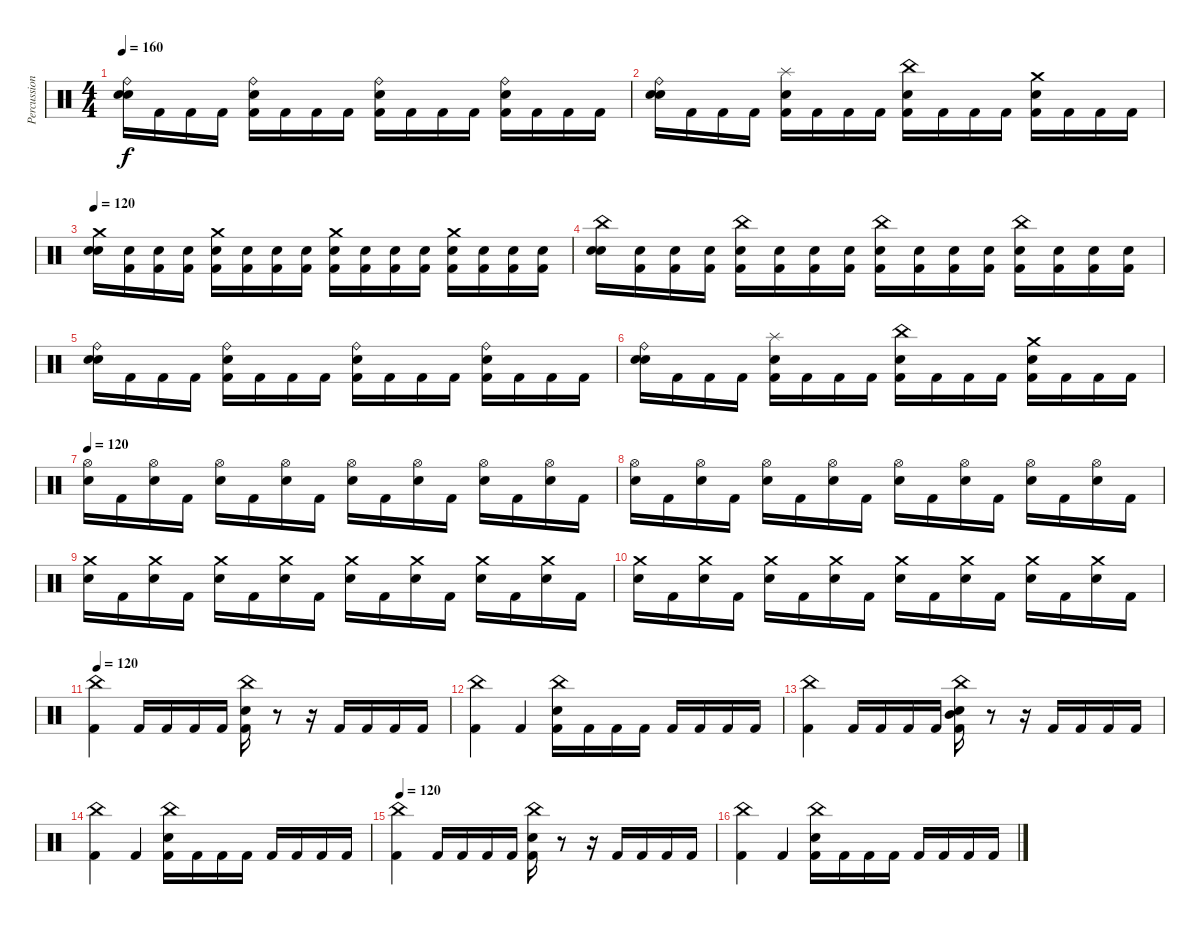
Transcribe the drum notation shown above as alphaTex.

\track ("Percussion" "Percussion") {instrument percussion}
\staff {score}
\articulation defaults
\ts (4 4)
\tempo 160
\clef neutral
\ks c
("Ride (bell)" "Snare (hit) 2" "Snare (hit) 2").16{dy f} "Kick (hit) 2".16 "Kick (hit) 2".16 "Kick (hit) 2".16 ("Ride (bell)" "Snare (hit) 2" "Kick (hit) 2").16 "Kick (hit) 2".16 "Kick (hit) 2".16 "Kick (hit) 2".16 ("Ride (bell)" "Snare (hit) 2" "Kick (hit) 2").16 "Kick (hit) 2".16 "Kick (hit) 2".16 "Kick (hit) 2".16 ("Ride (bell)" "Snare (hit) 2" "Kick (hit) 2").16 "Kick (hit) 2".16 "Kick (hit) 2".16 "Kick (hit) 2".16 |
("Ride (bell)" "Snare (hit) 2" "Snare (hit) 2").16 "Kick (hit) 2".16 "Kick (hit) 2".16 "Kick (hit) 2".16 ("Splash (hit)" "Snare (hit) 2" "Kick (hit) 2").16 "Kick (hit) 2".16 "Kick (hit) 2".16 "Kick (hit) 2".16 ("China (hit)" "Snare (hit) 2" "Kick (hit) 2").16 "Kick (hit) 2".16 "Kick (hit) 2".16 "Kick (hit) 2".16 ("Crash medium (hit)" "Snare (hit) 2" "Kick (hit) 2").16 "Kick (hit) 2".16 "Kick (hit) 2".16 "Kick (hit) 2".16 |
\tempo 90
\tempo 120
("Crash medium (hit)" "Snare (hit) 2" "Snare (hit) 2").16 ("Snare (hit) 2" "Kick (hit) 2").16 ("Snare (hit) 2" "Kick (hit) 2").16 ("Snare (hit) 2" "Kick (hit) 2").16 ("Crash medium (hit)" "Snare (hit) 2" "Kick (hit) 2").16 ("Snare (hit) 2" "Kick (hit) 2").16 ("Snare (hit) 2" "Kick (hit) 2").16 ("Snare (hit) 2" "Kick (hit) 2").16 ("Crash medium (hit)" "Snare (hit) 2" "Kick (hit) 2").16 ("Snare (hit) 2" "Kick (hit) 2").16 ("Snare (hit) 2" "Kick (hit) 2").16 ("Snare (hit) 2" "Kick (hit) 2").16 ("Crash medium (hit)" "Snare (hit) 2" "Kick (hit) 2").16 ("Snare (hit) 2" "Kick (hit) 2").16 ("Snare (hit) 2" "Kick (hit) 2").16 ("Snare (hit) 2" "Kick (hit) 2").16 |
("China (hit)" "Snare (hit) 2" "Snare (hit) 2").16 ("Snare (hit) 2" "Kick (hit) 2").16 ("Snare (hit) 2" "Kick (hit) 2").16 ("Snare (hit) 2" "Kick (hit) 2").16 ("China (hit)" "Snare (hit) 2" "Kick (hit) 2").16 ("Snare (hit) 2" "Kick (hit) 2").16 ("Snare (hit) 2" "Kick (hit) 2").16 ("Snare (hit) 2" "Kick (hit) 2").16 ("China (hit)" "Snare (hit) 2" "Kick (hit) 2").16 ("Snare (hit) 2" "Kick (hit) 2").16 ("Snare (hit) 2" "Kick (hit) 2").16 ("Snare (hit) 2" "Kick (hit) 2").16 ("China (hit)" "Snare (hit) 2" "Kick (hit) 2").16 ("Snare (hit) 2" "Kick (hit) 2").16 ("Snare (hit) 2" "Kick (hit) 2").16 ("Snare (hit) 2" "Kick (hit) 2").16 |
("Ride (bell)" "Snare (hit) 2" "Snare (hit) 2").16 "Kick (hit) 2".16 "Kick (hit) 2".16 "Kick (hit) 2".16 ("Ride (bell)" "Snare (hit) 2" "Kick (hit) 2").16 "Kick (hit) 2".16 "Kick (hit) 2".16 "Kick (hit) 2".16 ("Ride (bell)" "Snare (hit) 2" "Kick (hit) 2").16 "Kick (hit) 2".16 "Kick (hit) 2".16 "Kick (hit) 2".16 ("Ride (bell)" "Snare (hit) 2" "Kick (hit) 2").16 "Kick (hit) 2".16 "Kick (hit) 2".16 "Kick (hit) 2".16 |
("Ride (bell)" "Snare (hit) 2" "Snare (hit) 2").16 "Kick (hit) 2".16 "Kick (hit) 2".16 "Kick (hit) 2".16 ("Splash (hit)" "Snare (hit) 2" "Kick (hit) 2").16 "Kick (hit) 2".16 "Kick (hit) 2".16 "Kick (hit) 2".16 ("China (hit)" "Snare (hit) 2" "Kick (hit) 2").16 "Kick (hit) 2".16 "Kick (hit) 2".16 "Kick (hit) 2".16 ("Crash medium (hit)" "Snare (hit) 2" "Kick (hit) 2").16 "Kick (hit) 2".16 "Kick (hit) 2".16 "Kick (hit) 2".16 |
\tempo 90
\tempo 120
("Hi-Hat (open)" "Snare (hit) 2").16 "Kick (hit) 2".16 ("Hi-Hat (open)" "Snare (hit) 2").16 "Kick (hit) 2".16 ("Hi-Hat (open)" "Snare (hit) 2").16 "Kick (hit) 2".16 ("Hi-Hat (open)" "Snare (hit) 2").16 "Kick (hit) 2".16 ("Hi-Hat (open)" "Snare (hit) 2").16 "Kick (hit) 2".16 ("Hi-Hat (open)" "Snare (hit) 2").16 "Kick (hit) 2".16 ("Hi-Hat (open)" "Snare (hit) 2").16 "Kick (hit) 2".16 ("Hi-Hat (open)" "Snare (hit) 2").16 "Kick (hit) 2".16 |
("Hi-Hat (open)" "Snare (hit) 2").16 "Kick (hit) 2".16 ("Hi-Hat (open)" "Snare (hit) 2").16 "Kick (hit) 2".16 ("Hi-Hat (open)" "Snare (hit) 2").16 "Kick (hit) 2".16 ("Hi-Hat (open)" "Snare (hit) 2").16 "Kick (hit) 2".16 ("Hi-Hat (open)" "Snare (hit) 2").16 "Kick (hit) 2".16 ("Hi-Hat (open)" "Snare (hit) 2").16 "Kick (hit) 2".16 ("Hi-Hat (open)" "Snare (hit) 2").16 "Kick (hit) 2".16 ("Hi-Hat (open)" "Snare (hit) 2").16 "Kick (hit) 2".16 |
("Crash medium (hit)" "Snare (hit) 2").16 "Kick (hit) 2".16 ("Crash medium (hit)" "Snare (hit) 2").16 "Kick (hit) 2".16 ("Crash medium (hit)" "Snare (hit) 2").16 "Kick (hit) 2".16 ("Crash medium (hit)" "Snare (hit) 2").16 "Kick (hit) 2".16 ("Crash medium (hit)" "Snare (hit) 2").16 "Kick (hit) 2".16 ("Crash medium (hit)" "Snare (hit) 2").16 "Kick (hit) 2".16 ("Crash medium (hit)" "Snare (hit) 2").16 "Kick (hit) 2".16 ("Crash medium (hit)" "Snare (hit) 2").16 "Kick (hit) 2".16 |
("Crash medium (hit)" "Snare (hit) 2").16 "Kick (hit) 2".16 ("Crash medium (hit)" "Snare (hit) 2").16 "Kick (hit) 2".16 ("Crash medium (hit)" "Snare (hit) 2").16 "Kick (hit) 2".16 ("Crash medium (hit)" "Snare (hit) 2").16 "Kick (hit) 2".16 ("Crash medium (hit)" "Snare (hit) 2").16 "Kick (hit) 2".16 ("Crash medium (hit)" "Snare (hit) 2").16 "Kick (hit) 2".16 ("Crash medium (hit)" "Snare (hit) 2").16 "Kick (hit) 2".16 ("Crash medium (hit)" "Snare (hit) 2").16 "Kick (hit) 2".16 |
\tempo 120
("China (hit)" "Kick (hit) 2").4 "Kick (hit) 2".16 "Kick (hit) 2".16 "Kick (hit) 2".16 "Kick (hit) 2".16 ("China (hit)" "Snare (hit) 2" "Kick (hit) 2").16 r.8 r.16 "Kick (hit) 2".16 "Kick (hit) 2".16 "Kick (hit) 2".16 "Kick (hit) 2".16 |
("China (hit)" "Kick (hit) 2").4 "Kick (hit) 2".4 ("China (hit)" "Snare (hit) 2" "Kick (hit) 2").16 "Kick (hit) 2".16 "Kick (hit) 2".16 "Kick (hit) 2".16 "Kick (hit) 2".16 "Kick (hit) 2".16 "Kick (hit) 2".16 "Kick (hit) 2".16 |
("China (hit)" "Kick (hit) 2").4 "Kick (hit) 2".16 "Kick (hit) 2".16 "Kick (hit) 2".16 "Kick (hit) 2".16 ("Mid Tom (hit)" "China (hit)" "Snare (hit) 2" "Kick (hit) 2").16 r.8 r.16 "Kick (hit) 2".16 "Kick (hit) 2".16 "Kick (hit) 2".16 "Kick (hit) 2".16 |
("China (hit)" "Kick (hit) 2").4 "Kick (hit) 2".4 ("China (hit)" "Snare (hit) 2" "Kick (hit) 2").16 "Kick (hit) 2".16 "Kick (hit) 2".16 "Kick (hit) 2".16 "Kick (hit) 2".16 "Kick (hit) 2".16 "Kick (hit) 2".16 "Kick (hit) 2".16 |
\tempo 120
("China (hit)" "Kick (hit) 2").4 "Kick (hit) 2".16 "Kick (hit) 2".16 "Kick (hit) 2".16 "Kick (hit) 2".16 ("China (hit)" "Snare (hit) 2" "Kick (hit) 2").16 r.8 r.16 "Kick (hit) 2".16 "Kick (hit) 2".16 "Kick (hit) 2".16 "Kick (hit) 2".16 |
("China (hit)" "Kick (hit) 2").4 "Kick (hit) 2".4 ("China (hit)" "Snare (hit) 2" "Kick (hit) 2").16 "Kick (hit) 2".16 "Kick (hit) 2".16 "Kick (hit) 2".16 "Kick (hit) 2".16 "Kick (hit) 2".16 "Kick (hit) 2".16 "Kick (hit) 2".16
